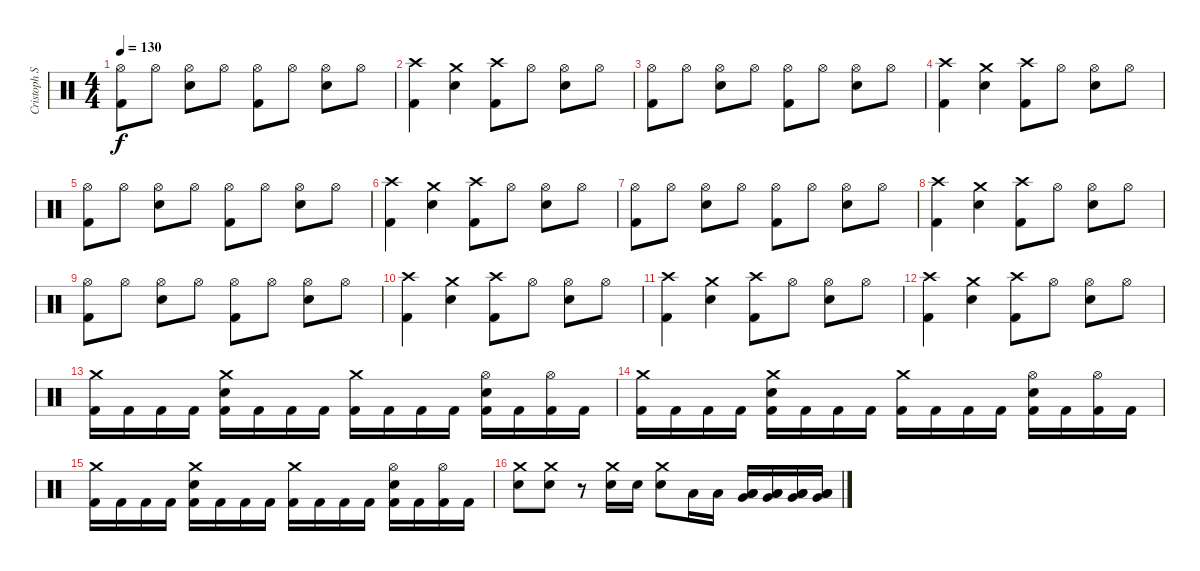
\track ("Cristoph Schneider" "Cristoph S") {instrument percussion}
\staff {score}
\articulation defaults
\ts (4 4)
\tempo 130
\clef neutral
\ks c
("Hi-Hat (open)" "Kick (hit) 2").8{dy f} "Hi-Hat (open)".8 ("Hi-Hat (open)" "Electric Snare (hit)").8 "Hi-Hat (open)".8 ("Hi-Hat (open)" "Kick (hit) 2").8 "Hi-Hat (open)".8 ("Hi-Hat (open)" "Electric Snare (hit)").8 "Hi-Hat (open)".8 |
("Crash high (hit)" "Kick (hit) 2").4 ("Crash medium (hit)" "Electric Snare (hit)").4 ("Crash high (hit)" "Kick (hit) 2").8 "Hi-Hat (open)".8 ("Hi-Hat (open)" "Electric Snare (hit)").8 "Hi-Hat (open)".8 |
("Hi-Hat (open)" "Kick (hit) 2").8 "Hi-Hat (open)".8 ("Hi-Hat (open)" "Electric Snare (hit)").8 "Hi-Hat (open)".8 ("Hi-Hat (open)" "Kick (hit) 2").8 "Hi-Hat (open)".8 ("Hi-Hat (open)" "Electric Snare (hit)").8 "Hi-Hat (open)".8 |
("Crash high (hit)" "Kick (hit) 2").4 ("Crash medium (hit)" "Electric Snare (hit)").4 ("Crash high (hit)" "Kick (hit) 2").8 "Hi-Hat (open)".8 ("Hi-Hat (open)" "Electric Snare (hit)").8 "Hi-Hat (open)".8 |
("Hi-Hat (open)" "Kick (hit) 2").8 "Hi-Hat (open)".8 ("Hi-Hat (open)" "Electric Snare (hit)").8 "Hi-Hat (open)".8 ("Hi-Hat (open)" "Kick (hit) 2").8 "Hi-Hat (open)".8 ("Hi-Hat (open)" "Electric Snare (hit)").8 "Hi-Hat (open)".8 |
("Crash high (hit)" "Kick (hit) 2").4 ("Crash medium (hit)" "Electric Snare (hit)").4 ("Crash high (hit)" "Kick (hit) 2").8 "Hi-Hat (open)".8 ("Hi-Hat (open)" "Electric Snare (hit)").8 "Hi-Hat (open)".8 |
("Hi-Hat (open)" "Kick (hit) 2").8 "Hi-Hat (open)".8 ("Hi-Hat (open)" "Electric Snare (hit)").8 "Hi-Hat (open)".8 ("Hi-Hat (open)" "Kick (hit) 2").8 "Hi-Hat (open)".8 ("Hi-Hat (open)" "Electric Snare (hit)").8 "Hi-Hat (open)".8 |
("Crash high (hit)" "Kick (hit) 2").4 ("Crash medium (hit)" "Electric Snare (hit)").4 ("Crash high (hit)" "Kick (hit) 2").8 "Hi-Hat (open)".8 ("Hi-Hat (open)" "Electric Snare (hit)").8 "Hi-Hat (open)".8 |
("Hi-Hat (open)" "Kick (hit) 2").8 "Hi-Hat (open)".8 ("Hi-Hat (open)" "Electric Snare (hit)").8 "Hi-Hat (open)".8 ("Hi-Hat (open)" "Kick (hit) 2").8 "Hi-Hat (open)".8 ("Hi-Hat (open)" "Electric Snare (hit)").8 "Hi-Hat (open)".8 |
("Crash high (hit)" "Kick (hit) 2").4 ("Crash medium (hit)" "Electric Snare (hit)").4 ("Crash high (hit)" "Kick (hit) 2").8 "Hi-Hat (open)".8 ("Hi-Hat (open)" "Electric Snare (hit)").8 "Hi-Hat (open)".8 |
("Crash high (hit)" "Kick (hit) 2").4 ("Crash medium (hit)" "Electric Snare (hit)").4 ("Crash high (hit)" "Kick (hit) 2").8 "Hi-Hat (open)".8 ("Hi-Hat (open)" "Electric Snare (hit)").8 "Hi-Hat (open)".8 |
("Crash high (hit)" "Kick (hit) 2").4 ("Crash medium (hit)" "Electric Snare (hit)").4 ("Crash high (hit)" "Kick (hit) 2").8 "Hi-Hat (open)".8 ("Hi-Hat (open)" "Electric Snare (hit)").8 "Hi-Hat (open)".8 |
("Kick (hit) 2" "Crash medium (hit)").16 "Kick (hit) 2".16 "Kick (hit) 2".16 "Kick (hit) 2".16 ("Kick (hit) 2" "Electric Snare (hit)" "Crash medium (hit)").16 "Kick (hit) 2".16 "Kick (hit) 2".16 "Kick (hit) 2".16 ("Kick (hit) 2" "Crash medium (hit)").16 "Kick (hit) 2".16 "Kick (hit) 2".16 "Kick (hit) 2".16 ("Kick (hit) 2" "Hi-Hat (open)" "Electric Snare (hit)").16 "Kick (hit) 2".16 ("Kick (hit) 2" "Hi-Hat (open)").16 "Kick (hit) 2".16 |
("Kick (hit) 2" "Crash medium (hit)").16 "Kick (hit) 2".16 "Kick (hit) 2".16 "Kick (hit) 2".16 ("Kick (hit) 2" "Electric Snare (hit)" "Crash medium (hit)").16 "Kick (hit) 2".16 "Kick (hit) 2".16 "Kick (hit) 2".16 ("Kick (hit) 2" "Crash medium (hit)").16 "Kick (hit) 2".16 "Kick (hit) 2".16 "Kick (hit) 2".16 ("Kick (hit) 2" "Hi-Hat (open)" "Electric Snare (hit)").16 "Kick (hit) 2".16 ("Kick (hit) 2" "Hi-Hat (open)").16 "Kick (hit) 2".16 |
("Kick (hit) 2" "Crash medium (hit)").16 "Kick (hit) 2".16 "Kick (hit) 2".16 "Kick (hit) 2".16 ("Kick (hit) 2" "Electric Snare (hit)" "Crash medium (hit)").16 "Kick (hit) 2".16 "Kick (hit) 2".16 "Kick (hit) 2".16 ("Kick (hit) 2" "Crash medium (hit)").16 "Kick (hit) 2".16 "Kick (hit) 2".16 "Kick (hit) 2".16 ("Kick (hit) 2" "Hi-Hat (open)" "Electric Snare (hit)").16 "Kick (hit) 2".16 ("Kick (hit) 2" "Hi-Hat (open)").16 "Kick (hit) 2".16 |
("Electric Snare (hit)" "Crash medium (hit)").8 ("Electric Snare (hit)" "Crash medium (hit)").8 r.8 ("Electric Snare (hit)" "Crash medium (hit)").16 "Electric Snare (hit)".16 ("Electric Snare (hit)" "Crash medium (hit)").8 "Low Floor Tom (hit)".16 "Low Floor Tom (hit)".16 ("Low Floor Tom (hit)" "Low Floor Tom (hit)" "Very Low Tom (hit)").16 ("Low Floor Tom (hit)" "Low Floor Tom (hit)" "Very Low Tom (hit)").16 ("Low Floor Tom (hit)" "Low Floor Tom (hit)" "Very Low Tom (hit)").16 ("Low Floor Tom (hit)" "Low Floor Tom (hit)" "Very Low Tom (hit)").16
